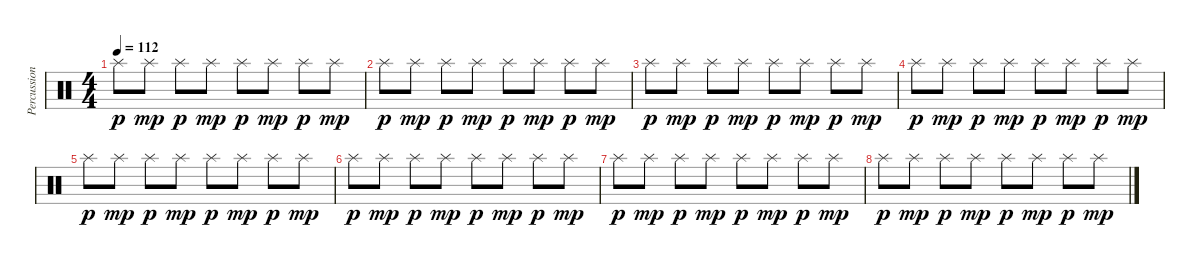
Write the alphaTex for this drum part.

\track ("Percussion" "Percussion") {instrument percussion}
\staff {score}
\articulation defaults
\ts (4 4)
\tempo 112
\clef neutral
\ks c "Splash (hit)".8{dy p} "Splash (hit)".8{dy mp} "Splash (hit)".8{dy p} "Splash (hit)".8{dy mp} "Splash (hit)".8{dy p} "Splash (hit)".8{dy mp} "Splash (hit)".8{dy p} "Splash (hit)".8{dy mp}
|
"Splash (hit)".8{dy p} "Splash (hit)".8{dy mp} "Splash (hit)".8{dy p} "Splash (hit)".8{dy mp} "Splash (hit)".8{dy p} "Splash (hit)".8{dy mp} "Splash (hit)".8{dy p} "Splash (hit)".8{dy mp} |
"Splash (hit)".8{dy p} "Splash (hit)".8{dy mp} "Splash (hit)".8{dy p} "Splash (hit)".8{dy mp} "Splash (hit)".8{dy p} "Splash (hit)".8{dy mp} "Splash (hit)".8{dy p} "Splash (hit)".8{dy mp} |
"Splash (hit)".8{dy p} "Splash (hit)".8{dy mp} "Splash (hit)".8{dy p} "Splash (hit)".8{dy mp} "Splash (hit)".8{dy p} "Splash (hit)".8{dy mp} "Splash (hit)".8{dy p} "Splash (hit)".8{dy mp} |
"Splash (hit)".8{dy p} "Splash (hit)".8{dy mp} "Splash (hit)".8{dy p} "Splash (hit)".8{dy mp} "Splash (hit)".8{dy p} "Splash (hit)".8{dy mp} "Splash (hit)".8{dy p} "Splash (hit)".8{dy mp} |
"Splash (hit)".8{dy p} "Splash (hit)".8{dy mp} "Splash (hit)".8{dy p} "Splash (hit)".8{dy mp} "Splash (hit)".8{dy p} "Splash (hit)".8{dy mp} "Splash (hit)".8{dy p} "Splash (hit)".8{dy mp} |
"Splash (hit)".8{dy p} "Splash (hit)".8{dy mp} "Splash (hit)".8{dy p} "Splash (hit)".8{dy mp} "Splash (hit)".8{dy p} "Splash (hit)".8{dy mp} "Splash (hit)".8{dy p} "Splash (hit)".8{dy mp} |
"Splash (hit)".8{dy p} "Splash (hit)".8{dy mp} "Splash (hit)".8{dy p} "Splash (hit)".8{dy mp} "Splash (hit)".8{dy p} "Splash (hit)".8{dy mp} "Splash (hit)".8{dy p} "Splash (hit)".8{dy mp}
